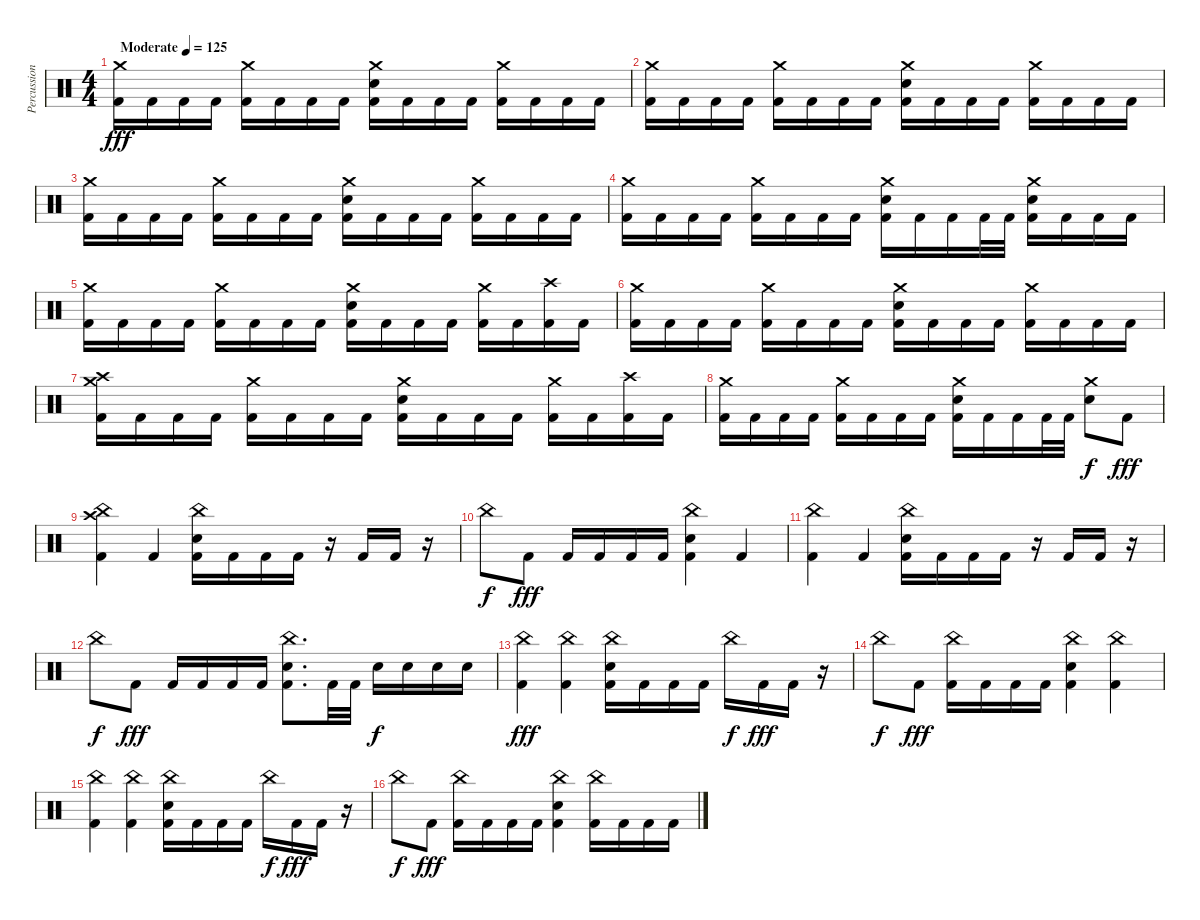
\track ("Percussion" "Percussion") {instrument percussion}
\staff {score}
\articulation defaults
\ts (4 4)
\tempo (125 "Moderate")
\clef neutral
\ks c
("Crash medium (hit)" "Kick (hit) 2").16{dy fff} "Kick (hit) 2".16 "Kick (hit) 2".16 "Kick (hit) 2".16 ("Crash medium (hit)" "Kick (hit) 2").16 "Kick (hit) 2".16 "Kick (hit) 2".16 "Kick (hit) 2".16 ("Crash medium (hit)" "Electric Snare (hit)" "Kick (hit) 2").16 "Kick (hit) 2".16 "Kick (hit) 2".16 "Kick (hit) 2".16 ("Crash medium (hit)" "Kick (hit) 2").16 "Kick (hit) 2".16 "Kick (hit) 2".16 "Kick (hit) 2".16 |
("Crash medium (hit)" "Kick (hit) 2").16 "Kick (hit) 2".16 "Kick (hit) 2".16 "Kick (hit) 2".16 ("Crash medium (hit)" "Kick (hit) 2").16 "Kick (hit) 2".16 "Kick (hit) 2".16 "Kick (hit) 2".16 ("Crash medium (hit)" "Electric Snare (hit)" "Kick (hit) 2").16 "Kick (hit) 2".16 "Kick (hit) 2".16 "Kick (hit) 2".16 ("Crash medium (hit)" "Kick (hit) 2").16 "Kick (hit) 2".16 "Kick (hit) 2".16 "Kick (hit) 2".16 |
("Crash medium (hit)" "Kick (hit) 2").16 "Kick (hit) 2".16 "Kick (hit) 2".16 "Kick (hit) 2".16 ("Crash medium (hit)" "Kick (hit) 2").16 "Kick (hit) 2".16 "Kick (hit) 2".16 "Kick (hit) 2".16 ("Crash medium (hit)" "Electric Snare (hit)" "Kick (hit) 2").16 "Kick (hit) 2".16 "Kick (hit) 2".16 "Kick (hit) 2".16 ("Crash medium (hit)" "Kick (hit) 2").16 "Kick (hit) 2".16 "Kick (hit) 2".16 "Kick (hit) 2".16 |
("Crash medium (hit)" "Kick (hit) 2").16 "Kick (hit) 2".16 "Kick (hit) 2".16 "Kick (hit) 2".16 ("Crash medium (hit)" "Kick (hit) 2").16 "Kick (hit) 2".16 "Kick (hit) 2".16 "Kick (hit) 2".16 ("Crash medium (hit)" "Electric Snare (hit)" "Kick (hit) 2").16 "Kick (hit) 2".16 "Kick (hit) 2".16 "Kick (hit) 2".32 "Kick (hit) 2".32 ("Crash medium (hit)" "Electric Snare (hit)" "Kick (hit) 2").16 "Kick (hit) 2".16 "Kick (hit) 2".16 "Kick (hit) 2".16 |
("Crash medium (hit)" "Kick (hit) 2").16 "Kick (hit) 2".16 "Kick (hit) 2".16 "Kick (hit) 2".16 ("Crash medium (hit)" "Kick (hit) 2").16 "Kick (hit) 2".16 "Kick (hit) 2".16 "Kick (hit) 2".16 ("Crash medium (hit)" "Electric Snare (hit)" "Kick (hit) 2").16 "Kick (hit) 2".16 "Kick (hit) 2".16 "Kick (hit) 2".16 ("Crash medium (hit)" "Kick (hit) 2").16 "Kick (hit) 2".16 ("Crash high (hit)" "Kick (hit) 2").16 "Kick (hit) 2".16 |
("Crash medium (hit)" "Kick (hit) 2").16 "Kick (hit) 2".16 "Kick (hit) 2".16 "Kick (hit) 2".16 ("Crash medium (hit)" "Kick (hit) 2").16 "Kick (hit) 2".16 "Kick (hit) 2".16 "Kick (hit) 2".16 ("Crash medium (hit)" "Electric Snare (hit)" "Kick (hit) 2").16 "Kick (hit) 2".16 "Kick (hit) 2".16 "Kick (hit) 2".16 ("Crash medium (hit)" "Kick (hit) 2").16 "Kick (hit) 2".16 "Kick (hit) 2".16 "Kick (hit) 2".16 |
("Crash high (hit)" "Crash medium (hit)" "Kick (hit) 2").16 "Kick (hit) 2".16 "Kick (hit) 2".16 "Kick (hit) 2".16 ("Crash medium (hit)" "Kick (hit) 2").16 "Kick (hit) 2".16 "Kick (hit) 2".16 "Kick (hit) 2".16 ("Crash medium (hit)" "Electric Snare (hit)" "Kick (hit) 2").16 "Kick (hit) 2".16 "Kick (hit) 2".16 "Kick (hit) 2".16 ("Crash medium (hit)" "Kick (hit) 2").16 "Kick (hit) 2".16 ("Crash high (hit)" "Kick (hit) 2").16 "Kick (hit) 2".16 |
("Crash medium (hit)" "Kick (hit) 2").16 "Kick (hit) 2".16 "Kick (hit) 2".16 "Kick (hit) 2".16 ("Crash medium (hit)" "Kick (hit) 2").16 "Kick (hit) 2".16 "Kick (hit) 2".16 "Kick (hit) 2".16 ("Crash medium (hit)" "Electric Snare (hit)" "Kick (hit) 2").16 "Kick (hit) 2".16 "Kick (hit) 2".16 "Kick (hit) 2".32 "Kick (hit) 2".32 ("Crash medium (hit)" "Electric Snare (hit)").8{dy f} "Kick (hit) 2".8{dy fff} |
("Crash high (hit)" "China (hit)" "Kick (hit) 2").4 "Kick (hit) 2".4 ("China (hit)" "Electric Snare (hit)" "Kick (hit) 2").16 "Kick (hit) 2".16 "Kick (hit) 2".16 "Kick (hit) 2".16 r.16 "Kick (hit) 2".16 "Kick (hit) 2".16 r.16 |
"China (hit)".8{dy f} "Kick (hit) 2".8{dy fff} "Kick (hit) 2".16 "Kick (hit) 2".16 "Kick (hit) 2".16 "Kick (hit) 2".16 ("China (hit)" "Electric Snare (hit)" "Kick (hit) 2").4 "Kick (hit) 2".4 |
("China (hit)" "Kick (hit) 2").4 "Kick (hit) 2".4 ("China (hit)" "Electric Snare (hit)" "Kick (hit) 2").16 "Kick (hit) 2".16 "Kick (hit) 2".16 "Kick (hit) 2".16 r.16 "Kick (hit) 2".16 "Kick (hit) 2".16 r.16 |
"China (hit)".8{dy f} "Kick (hit) 2".8{dy fff} "Kick (hit) 2".16 "Kick (hit) 2".16 "Kick (hit) 2".16 "Kick (hit) 2".16 ("China (hit)" "Electric Snare (hit)" "Kick (hit) 2").8{d} "Kick (hit) 2".32 "Kick (hit) 2".32 "Electric Snare (hit)".16{dy f} "Electric Snare (hit)".16 "Electric Snare (hit)".16 "Electric Snare (hit)".16 |
("China (hit)" "Kick (hit) 2").4{dy fff} ("China (hit)" "Kick (hit) 2").4 ("China (hit)" "Electric Snare (hit)" "Kick (hit) 2").16 "Kick (hit) 2".16 "Kick (hit) 2".16 "Kick (hit) 2".16 "China (hit)".16{dy f} "Kick (hit) 2".16{dy fff} "Kick (hit) 2".16 r.16 |
"China (hit)".8{dy f} "Kick (hit) 2".8{dy fff} ("China (hit)" "Kick (hit) 2").16 "Kick (hit) 2".16 "Kick (hit) 2".16 "Kick (hit) 2".16 ("China (hit)" "Electric Snare (hit)" "Kick (hit) 2").4 ("China (hit)" "Kick (hit) 2").4 |
("China (hit)" "Kick (hit) 2").4 ("China (hit)" "Kick (hit) 2").4 ("China (hit)" "Electric Snare (hit)" "Kick (hit) 2").16 "Kick (hit) 2".16 "Kick (hit) 2".16 "Kick (hit) 2".16 "China (hit)".16{dy f} "Kick (hit) 2".16{dy fff} "Kick (hit) 2".16 r.16 |
"China (hit)".8{dy f} "Kick (hit) 2".8{dy fff} ("China (hit)" "Kick (hit) 2").16 "Kick (hit) 2".16 "Kick (hit) 2".16 "Kick (hit) 2".16 ("China (hit)" "Electric Snare (hit)" "Kick (hit) 2").4 ("China (hit)" "Kick (hit) 2").16 "Kick (hit) 2".16 "Kick (hit) 2".16 "Kick (hit) 2".16
